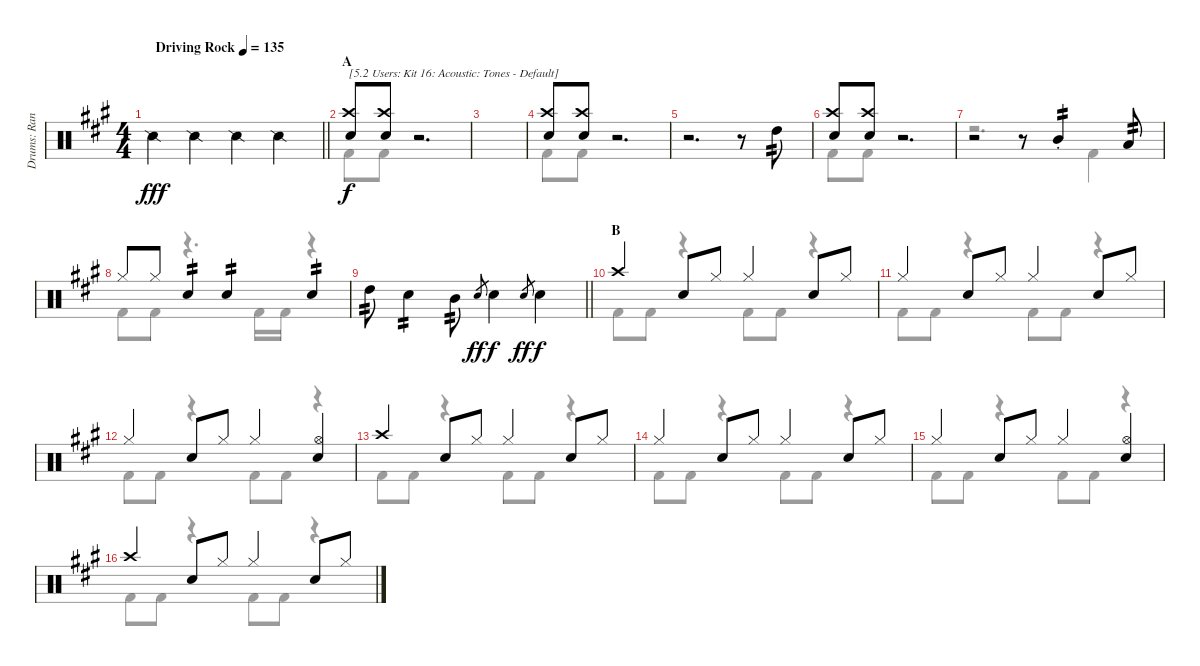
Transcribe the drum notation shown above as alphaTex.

\track ("Drums: Randy" "Drums: Ran") {instrument percussion}
\staff {score}
\articulation defaults
\voice
\ts (4 4)
\tempo (135 "Driving Rock")
\clef neutral
\barLineRight lightlight
\ks a "Snare (side stick) 2".4{dy fff} "Snare (side stick) 2".4 "Snare (side stick) 2".4 "Snare (side stick) 2".4
|
\section ("" "A")
("Crash high (hit)" "Snare (hit) 2").8{txt "[5.2 Users: Kit 16: Acoustic: Tones - Default]" dy f} ("Crash high (hit)" "Snare (hit) 2").8 r.2{d} |
|
("Crash high (hit)" "Snare (hit) 2").8 ("Crash high (hit)" "Snare (hit) 2").8 r.2{d} |
r.2{d} r.8 "High Tom (hit)".8{tp 2} |
("Crash high (hit)" "Snare (hit) 2").8 ("Crash high (hit)" "Snare (hit) 2").8 r.2{d} |
r.2 r.8 "Mid Tom (hit)"{st}.4{tp 2} "Low Tom (hit)".8{tp 2} |
"Hi-Hat (closed)".8 "Hi-Hat (closed)".8 "Snare (hit) 2".4{tp 2} "Snare (hit) 2".4{tp 2} "Snare (hit) 2".4{tp 2} |
\barLineRight lightlight "High Tom (hit)".8{tp 2} "Snare (hit) 2".4{tp 2} "Mid Tom (hit)".8{tp 2} "Electric Snare (hit)".8{gr dy ff} "Snare (hit) 2".4{dy f} "Electric Snare (hit)".8{gr dy ff} "Snare (hit) 2".4{dy f}
|
\section ("" "B")
"Crash high (hit)".4 "Snare (hit) 2".8 "Hi-Hat (closed)".8 "Hi-Hat (closed)".4 "Snare (hit) 2".8 "Hi-Hat (closed)".8 |
"Hi-Hat (closed)".4 "Snare (hit) 2".8 "Hi-Hat (closed)".8 "Hi-Hat (closed)".4 "Snare (hit) 2".8 "Hi-Hat (closed)".8 |
"Hi-Hat (closed)".4 "Snare (hit) 2".8 "Hi-Hat (closed)".8 "Hi-Hat (closed)".4 ("Hi-Hat (open)" "Snare (hit) 2").4 |
"Crash high (hit)".4 "Snare (hit) 2".8 "Hi-Hat (closed)".8 "Hi-Hat (closed)".4 "Snare (hit) 2".8 "Hi-Hat (closed)".8 |
"Hi-Hat (closed)".4 "Snare (hit) 2".8 "Hi-Hat (closed)".8 "Hi-Hat (closed)".4 "Snare (hit) 2".8 "Hi-Hat (closed)".8 |
"Hi-Hat (closed)".4 "Snare (hit) 2".8 "Hi-Hat (closed)".8 "Hi-Hat (closed)".4 ("Hi-Hat (open)" "Snare (hit) 2").4 |
"Crash high (hit)".4 "Snare (hit) 2".8 "Hi-Hat (closed)".8 "Hi-Hat (closed)".4 "Snare (hit) 2".8 "Hi-Hat (closed)".8
\voice
\clef neutral
\ottava regular
\simile none
\barLineRight lightlight
\ks a
|
"Kick (hit) 2".8 "Kick (hit) 2".8 r.2{d} |
|
"Kick (hit) 2".8 "Kick (hit) 2".8 r.2{d} |
|
"Kick (hit) 2".8 "Kick (hit) 2".8 r.2{d} |
r.2{d} "Kick (hit) 2".4 |
"Kick (hit) 2".8 "Kick (hit) 2".8 r.4{d} "Kick (hit) 2".16 "Kick (hit) 2".16 r.4 |
\barLineRight lightlight
|
"Kick (hit) 2".8 "Kick (hit) 2".8 r.4 "Kick (hit) 2".8 "Kick (hit) 2".8 r.4 |
"Kick (hit) 2".8 "Kick (hit) 2".8 r.4 "Kick (hit) 2".8 "Kick (hit) 2".8 r.4 |
"Kick (hit) 2".8 "Kick (hit) 2".8 r.4 "Kick (hit) 2".8 "Kick (hit) 2".8 r.4 |
"Kick (hit) 2".8 "Kick (hit) 2".8 r.4 "Kick (hit) 2".8 "Kick (hit) 2".8 r.4 |
"Kick (hit) 2".8 "Kick (hit) 2".8 r.4 "Kick (hit) 2".8 "Kick (hit) 2".8 r.4 |
"Kick (hit) 2".8 "Kick (hit) 2".8 r.4 "Kick (hit) 2".8 "Kick (hit) 2".8 r.4 |
"Kick (hit) 2".8 "Kick (hit) 2".8 r.4 "Kick (hit) 2".8 "Kick (hit) 2".8 r.4
